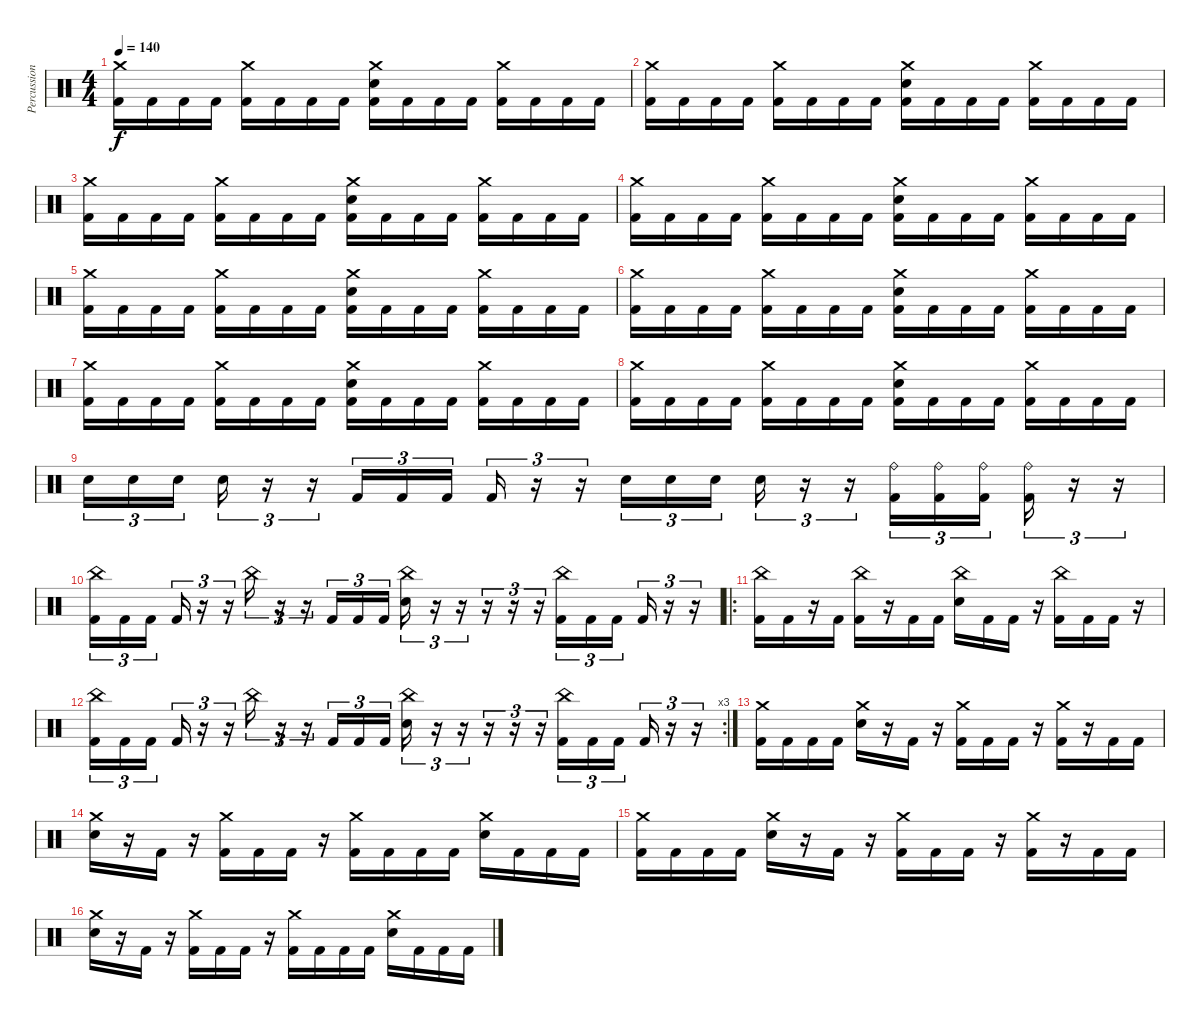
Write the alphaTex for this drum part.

\track ("Percussion" "Percussion") {instrument percussion}
\staff {score}
\articulation defaults
\ts (4 4)
\tempo 140
\clef neutral
\ks c
("Crash medium (hit)" "Kick (hit) 2").16{dy f} "Kick (hit) 2".16 "Kick (hit) 2".16 "Kick (hit) 2".16 ("Crash medium (hit)" "Kick (hit) 2").16 "Kick (hit) 2".16 "Kick (hit) 2".16 "Kick (hit) 2".16 ("Crash medium (hit)" "Electric Snare (hit)" "Kick (hit) 2").16 "Kick (hit) 2".16 "Kick (hit) 2".16 "Kick (hit) 2".16 ("Crash medium (hit)" "Kick (hit) 2").16 "Kick (hit) 2".16 "Kick (hit) 2".16 "Kick (hit) 2".16 |
("Crash medium (hit)" "Kick (hit) 2").16 "Kick (hit) 2".16 "Kick (hit) 2".16 "Kick (hit) 2".16 ("Crash medium (hit)" "Kick (hit) 2").16 "Kick (hit) 2".16 "Kick (hit) 2".16 "Kick (hit) 2".16 ("Crash medium (hit)" "Electric Snare (hit)" "Kick (hit) 2").16 "Kick (hit) 2".16 "Kick (hit) 2".16 "Kick (hit) 2".16 ("Crash medium (hit)" "Kick (hit) 2").16 "Kick (hit) 2".16 "Kick (hit) 2".16 "Kick (hit) 2".16 |
("Crash medium (hit)" "Kick (hit) 2").16 "Kick (hit) 2".16 "Kick (hit) 2".16 "Kick (hit) 2".16 ("Crash medium (hit)" "Kick (hit) 2").16 "Kick (hit) 2".16 "Kick (hit) 2".16 "Kick (hit) 2".16 ("Crash medium (hit)" "Electric Snare (hit)" "Kick (hit) 2").16 "Kick (hit) 2".16 "Kick (hit) 2".16 "Kick (hit) 2".16 ("Crash medium (hit)" "Kick (hit) 2").16 "Kick (hit) 2".16 "Kick (hit) 2".16 "Kick (hit) 2".16 |
("Crash medium (hit)" "Kick (hit) 2").16 "Kick (hit) 2".16 "Kick (hit) 2".16 "Kick (hit) 2".16 ("Crash medium (hit)" "Kick (hit) 2").16 "Kick (hit) 2".16 "Kick (hit) 2".16 "Kick (hit) 2".16 ("Crash medium (hit)" "Electric Snare (hit)" "Kick (hit) 2").16 "Kick (hit) 2".16 "Kick (hit) 2".16 "Kick (hit) 2".16 ("Crash medium (hit)" "Kick (hit) 2").16 "Kick (hit) 2".16 "Kick (hit) 2".16 "Kick (hit) 2".16 |
("Crash medium (hit)" "Kick (hit) 2").16 "Kick (hit) 2".16 "Kick (hit) 2".16 "Kick (hit) 2".16 ("Crash medium (hit)" "Kick (hit) 2").16 "Kick (hit) 2".16 "Kick (hit) 2".16 "Kick (hit) 2".16 ("Crash medium (hit)" "Electric Snare (hit)" "Kick (hit) 2").16 "Kick (hit) 2".16 "Kick (hit) 2".16 "Kick (hit) 2".16 ("Crash medium (hit)" "Kick (hit) 2").16 "Kick (hit) 2".16 "Kick (hit) 2".16 "Kick (hit) 2".16 |
("Crash medium (hit)" "Kick (hit) 2").16 "Kick (hit) 2".16 "Kick (hit) 2".16 "Kick (hit) 2".16 ("Crash medium (hit)" "Kick (hit) 2").16 "Kick (hit) 2".16 "Kick (hit) 2".16 "Kick (hit) 2".16 ("Crash medium (hit)" "Electric Snare (hit)" "Kick (hit) 2").16 "Kick (hit) 2".16 "Kick (hit) 2".16 "Kick (hit) 2".16 ("Crash medium (hit)" "Kick (hit) 2").16 "Kick (hit) 2".16 "Kick (hit) 2".16 "Kick (hit) 2".16 |
("Crash medium (hit)" "Kick (hit) 2").16 "Kick (hit) 2".16 "Kick (hit) 2".16 "Kick (hit) 2".16 ("Crash medium (hit)" "Kick (hit) 2").16 "Kick (hit) 2".16 "Kick (hit) 2".16 "Kick (hit) 2".16 ("Crash medium (hit)" "Electric Snare (hit)" "Kick (hit) 2").16 "Kick (hit) 2".16 "Kick (hit) 2".16 "Kick (hit) 2".16 ("Crash medium (hit)" "Kick (hit) 2").16 "Kick (hit) 2".16 "Kick (hit) 2".16 "Kick (hit) 2".16 |
("Crash medium (hit)" "Kick (hit) 2").16 "Kick (hit) 2".16 "Kick (hit) 2".16 "Kick (hit) 2".16 ("Crash medium (hit)" "Kick (hit) 2").16 "Kick (hit) 2".16 "Kick (hit) 2".16 "Kick (hit) 2".16 ("Crash medium (hit)" "Electric Snare (hit)" "Kick (hit) 2").16 "Kick (hit) 2".16 "Kick (hit) 2".16 "Kick (hit) 2".16 ("Crash medium (hit)" "Kick (hit) 2").16 "Kick (hit) 2".16 "Kick (hit) 2".16 "Kick (hit) 2".16 |
"Electric Snare (hit)".16{tu (3 2)} "Electric Snare (hit)".16{tu (3 2)} "Electric Snare (hit)".16{tu (3 2) beam splitsecondary} "Electric Snare (hit)".16{tu (3 2)} r.16{tu (3 2)} r.16{tu (3 2)} "Kick (hit) 2".16{tu (3 2)} "Kick (hit) 2".16{tu (3 2)} "Kick (hit) 2".16{tu (3 2) beam splitsecondary} "Kick (hit) 2".16{tu (3 2)} r.16{tu (3 2)} r.16{tu (3 2)} "Electric Snare (hit)".16{tu (3 2)} "Electric Snare (hit)".16{tu (3 2)} "Electric Snare (hit)".16{tu (3 2) beam splitsecondary} "Electric Snare (hit)".16{tu (3 2)} r.16{tu (3 2)} r.16{tu (3 2)} ("Ride (bell)" "Kick (hit) 2").16{tu (3 2)} ("Ride (bell)" "Kick (hit) 2").16{tu (3 2)} ("Ride (bell)" "Kick (hit) 2").16{tu (3 2) beam splitsecondary} ("Ride (bell)" "Kick (hit) 2").16{tu (3 2)} r.16{tu (3 2)} r.16{tu (3 2)} |
("China (hit)" "Kick (hit) 2").16{tu (3 2)} "Kick (hit) 2".16{tu (3 2)} "Kick (hit) 2".16{tu (3 2) beam splitsecondary} "Kick (hit) 2".16{tu (3 2)} r.16{tu (3 2)} r.16{tu (3 2)} "China (hit)".16{tu (3 2)} r.16{tu (3 2)} r.16{tu (3 2)} "Kick (hit) 2".16{tu (3 2)} "Kick (hit) 2".16{tu (3 2)} "Kick (hit) 2".16{tu (3 2)} ("China (hit)" "Electric Snare (hit)").16{tu (3 2)} r.16{tu (3 2)} r.16{tu (3 2)} r.16{tu (3 2)} r.16{tu (3 2)} r.16{tu (3 2)} ("China (hit)" "Kick (hit) 2").16{tu (3 2)} "Kick (hit) 2".16{tu (3 2)} "Kick (hit) 2".16{tu (3 2) beam splitsecondary} "Kick (hit) 2".16{tu (3 2)} r.16{tu (3 2)} r.16{tu (3 2)} |
\ro
("China (hit)" "Kick (hit) 2").16 "Kick (hit) 2".16 r.16 "Kick (hit) 2".16 ("China (hit)" "Kick (hit) 2").16 r.16 "Kick (hit) 2".16 "Kick (hit) 2".16 ("China (hit)" "Electric Snare (hit)").16 "Kick (hit) 2".16 "Kick (hit) 2".16 r.16 ("China (hit)" "Kick (hit) 2").16 "Kick (hit) 2".16 "Kick (hit) 2".16 r.16 |
\rc 3
("China (hit)" "Kick (hit) 2").16{tu (3 2)} "Kick (hit) 2".16{tu (3 2)} "Kick (hit) 2".16{tu (3 2) beam splitsecondary} "Kick (hit) 2".16{tu (3 2)} r.16{tu (3 2)} r.16{tu (3 2)} "China (hit)".16{tu (3 2)} r.16{tu (3 2)} r.16{tu (3 2)} "Kick (hit) 2".16{tu (3 2)} "Kick (hit) 2".16{tu (3 2)} "Kick (hit) 2".16{tu (3 2)} ("China (hit)" "Electric Snare (hit)").16{tu (3 2)} r.16{tu (3 2)} r.16{tu (3 2)} r.16{tu (3 2)} r.16{tu (3 2)} r.16{tu (3 2)} ("China (hit)" "Kick (hit) 2").16{tu (3 2)} "Kick (hit) 2".16{tu (3 2)} "Kick (hit) 2".16{tu (3 2) beam splitsecondary} "Kick (hit) 2".16{tu (3 2)} r.16{tu (3 2)} r.16{tu (3 2)} |
("Crash medium (hit)" "Kick (hit) 2").16 "Kick (hit) 2".16 "Kick (hit) 2".16 "Kick (hit) 2".16 ("Crash medium (hit)" "Electric Snare (hit)").16 r.16 "Kick (hit) 2".16 r.16 ("Crash medium (hit)" "Kick (hit) 2").16 "Kick (hit) 2".16 "Kick (hit) 2".16 r.16 ("Crash medium (hit)" "Kick (hit) 2").16 r.16 "Kick (hit) 2".16 "Kick (hit) 2".16 |
("Crash medium (hit)" "Electric Snare (hit)").16 r.16 "Kick (hit) 2".16 r.16 ("Crash medium (hit)" "Kick (hit) 2").16 "Kick (hit) 2".16 "Kick (hit) 2".16 r.16 ("Crash medium (hit)" "Kick (hit) 2").16 "Kick (hit) 2".16 "Kick (hit) 2".16 "Kick (hit) 2".16 ("Crash medium (hit)" "Electric Snare (hit)").16 "Kick (hit) 2".16 "Kick (hit) 2".16 "Kick (hit) 2".16 |
("Crash medium (hit)" "Kick (hit) 2").16 "Kick (hit) 2".16 "Kick (hit) 2".16 "Kick (hit) 2".16 ("Crash medium (hit)" "Electric Snare (hit)").16 r.16 "Kick (hit) 2".16 r.16 ("Crash medium (hit)" "Kick (hit) 2").16 "Kick (hit) 2".16 "Kick (hit) 2".16 r.16 ("Crash medium (hit)" "Kick (hit) 2").16 r.16 "Kick (hit) 2".16 "Kick (hit) 2".16 |
("Crash medium (hit)" "Electric Snare (hit)").16 r.16 "Kick (hit) 2".16 r.16 ("Crash medium (hit)" "Kick (hit) 2").16 "Kick (hit) 2".16 "Kick (hit) 2".16 r.16 ("Crash medium (hit)" "Kick (hit) 2").16 "Kick (hit) 2".16 "Kick (hit) 2".16 "Kick (hit) 2".16 ("Crash medium (hit)" "Electric Snare (hit)").16 "Kick (hit) 2".16 "Kick (hit) 2".16 "Kick (hit) 2".16
